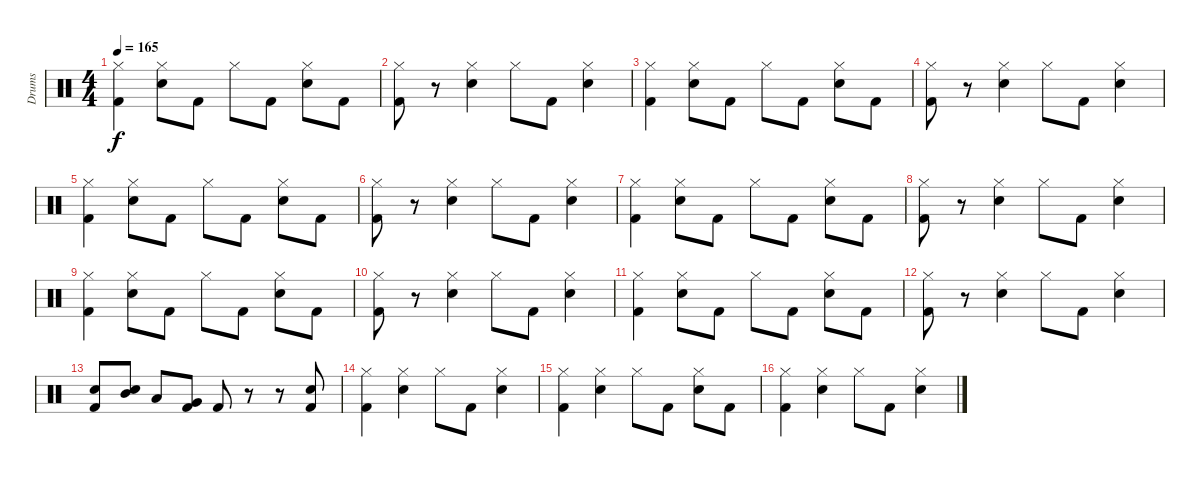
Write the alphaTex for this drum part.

\track ("Drums" "Drums") {instrument percussion}
\staff {score}
\articulation defaults
\ts (4 4)
\tempo 165
\clef neutral
\ks c
("Hi-Hat (closed)" "Kick (hit) 2").4{dy f} ("Hi-Hat (closed)" "Snare (hit) 2").8 "Kick (hit) 2".8 "Hi-Hat (closed)".8 "Kick (hit) 2".8 ("Hi-Hat (closed)" "Snare (hit) 2").8 "Kick (hit) 2".8 |
("Hi-Hat (closed)" "Kick (hit) 2").8 r.8 ("Hi-Hat (closed)" "Snare (hit) 2").4 "Hi-Hat (closed)".8 "Kick (hit) 2".8 ("Hi-Hat (closed)" "Snare (hit) 2").4 |
("Hi-Hat (closed)" "Kick (hit) 2").4 ("Hi-Hat (closed)" "Snare (hit) 2").8 "Kick (hit) 2".8 "Hi-Hat (closed)".8 "Kick (hit) 2".8 ("Hi-Hat (closed)" "Snare (hit) 2").8 "Kick (hit) 2".8 |
("Hi-Hat (closed)" "Kick (hit) 2").8 r.8 ("Hi-Hat (closed)" "Snare (hit) 2").4 "Hi-Hat (closed)".8 "Kick (hit) 2".8 ("Hi-Hat (closed)" "Snare (hit) 2").4 |
("Hi-Hat (closed)" "Kick (hit) 2").4 ("Hi-Hat (closed)" "Snare (hit) 2").8 "Kick (hit) 2".8 "Hi-Hat (closed)".8 "Kick (hit) 2".8 ("Hi-Hat (closed)" "Snare (hit) 2").8 "Kick (hit) 2".8 |
("Hi-Hat (closed)" "Kick (hit) 2").8 r.8 ("Hi-Hat (closed)" "Snare (hit) 2").4 "Hi-Hat (closed)".8 "Kick (hit) 2".8 ("Hi-Hat (closed)" "Snare (hit) 2").4 |
("Hi-Hat (closed)" "Kick (hit) 2").4 ("Hi-Hat (closed)" "Snare (hit) 2").8 "Kick (hit) 2".8 "Hi-Hat (closed)".8 "Kick (hit) 2".8 ("Hi-Hat (closed)" "Snare (hit) 2").8 "Kick (hit) 2".8 |
("Hi-Hat (closed)" "Kick (hit) 2").8 r.8 ("Hi-Hat (closed)" "Snare (hit) 2").4 "Hi-Hat (closed)".8 "Kick (hit) 2".8 ("Hi-Hat (closed)" "Snare (hit) 2").4 |
("Hi-Hat (closed)" "Kick (hit) 2").4 ("Hi-Hat (closed)" "Snare (hit) 2").8 "Kick (hit) 2".8 "Hi-Hat (closed)".8 "Kick (hit) 2".8 ("Hi-Hat (closed)" "Snare (hit) 2").8 "Kick (hit) 2".8 |
("Hi-Hat (closed)" "Kick (hit) 2").8 r.8 ("Hi-Hat (closed)" "Snare (hit) 2").4 "Hi-Hat (closed)".8 "Kick (hit) 2".8 ("Hi-Hat (closed)" "Snare (hit) 2").4 |
("Hi-Hat (closed)" "Kick (hit) 2").4 ("Hi-Hat (closed)" "Snare (hit) 2").8 "Kick (hit) 2".8 "Hi-Hat (closed)".8 "Kick (hit) 2".8 ("Hi-Hat (closed)" "Snare (hit) 2").8 "Kick (hit) 2".8 |
("Hi-Hat (closed)" "Kick (hit) 2").8 r.8 ("Hi-Hat (closed)" "Snare (hit) 2").4 "Hi-Hat (closed)".8 "Kick (hit) 2".8 ("Hi-Hat (closed)" "Snare (hit) 2").4 |
("Snare (hit) 2" "Kick (hit) 2").8 ("Snare (hit) 2" "Mid Tom (hit)").8 "Low Tom (hit)".8 ("Very Low Tom (hit)" "Kick (hit) 2").8 "Kick (hit) 2".8 r.8 r.8 ("Snare (hit) 2" "Kick (hit) 2").8 |
("Hi-Hat (closed)" "Kick (hit) 2").4 ("Hi-Hat (closed)" "Snare (hit) 2").4 "Hi-Hat (closed)".8 "Kick (hit) 2".8 ("Hi-Hat (closed)" "Snare (hit) 2").4 |
("Hi-Hat (closed)" "Kick (hit) 2").4 ("Hi-Hat (closed)" "Snare (hit) 2").4 "Hi-Hat (closed)".8 "Kick (hit) 2".8 ("Hi-Hat (closed)" "Snare (hit) 2").8 "Kick (hit) 2".8 |
("Hi-Hat (closed)" "Kick (hit) 2").4 ("Hi-Hat (closed)" "Snare (hit) 2").4 "Hi-Hat (closed)".8 "Kick (hit) 2".8 ("Hi-Hat (closed)" "Snare (hit) 2").4
